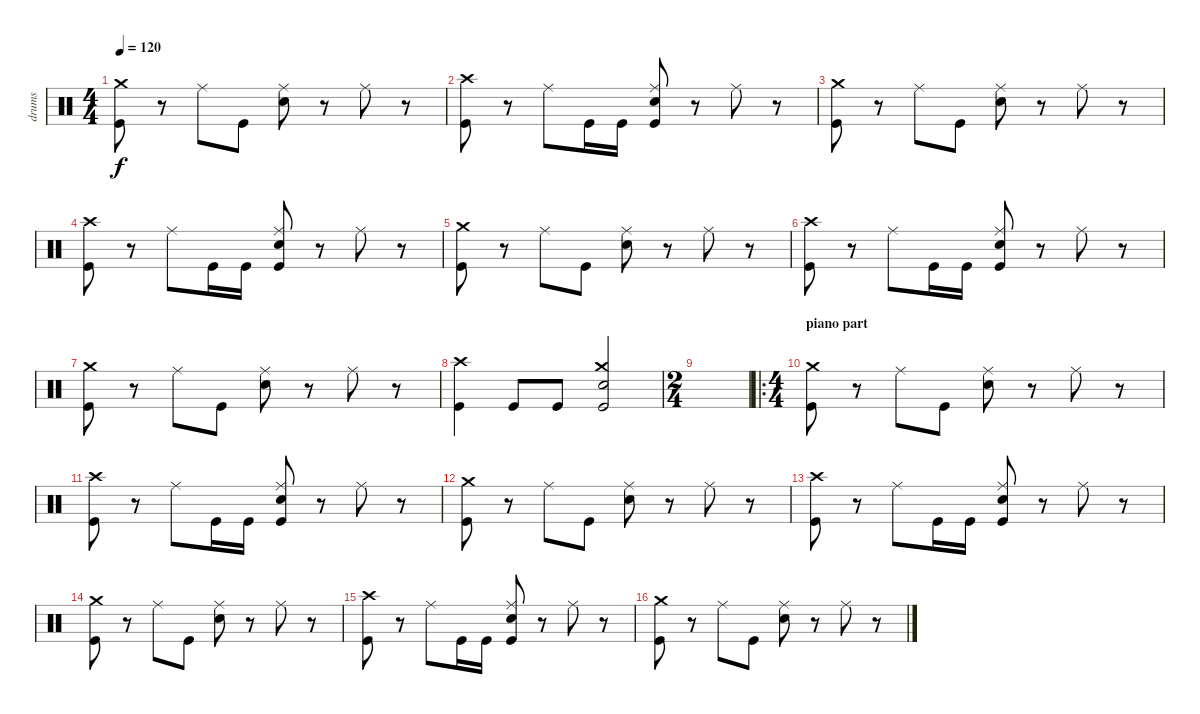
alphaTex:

\track ("drums" "drums") {instrument percussion}
\staff {score}
\articulation defaults
\ts (4 4)
\tempo 120
\clef neutral
\ks c
("Kick (hit)" "Crash medium (hit)").8{dy f} r.8 "Ride (middle)".8 "Kick (hit)".8 ("Snare (hit) 2" "Ride (middle)").8 r.8 "Ride (middle)".8 r.8 |
("Kick (hit)" "Crash high (hit)").8 r.8 "Ride (middle)".8 "Kick (hit)".16 "Kick (hit)".16 ("Kick (hit)" "Snare (hit) 2" "Ride (middle)").8 r.8 "Ride (middle)".8 r.8 |
("Kick (hit)" "Crash medium (hit)").8 r.8 "Ride (middle)".8 "Kick (hit)".8 ("Snare (hit) 2" "Ride (middle)").8 r.8 "Ride (middle)".8 r.8 |
("Kick (hit)" "Crash high (hit)").8 r.8 "Ride (middle)".8 "Kick (hit)".16 "Kick (hit)".16 ("Kick (hit)" "Snare (hit) 2" "Ride (middle)").8 r.8 "Ride (middle)".8 r.8 |
("Kick (hit)" "Crash medium (hit)").8 r.8 "Ride (middle)".8 "Kick (hit)".8 ("Snare (hit) 2" "Ride (middle)").8 r.8 "Ride (middle)".8 r.8 |
("Kick (hit)" "Crash high (hit)").8 r.8 "Ride (middle)".8 "Kick (hit)".16 "Kick (hit)".16 ("Kick (hit)" "Snare (hit) 2" "Ride (middle)").8 r.8 "Ride (middle)".8 r.8 |
("Kick (hit)" "Crash medium (hit)").8 r.8 "Ride (middle)".8 "Kick (hit)".8 ("Snare (hit) 2" "Ride (middle)").8 r.8 "Ride (middle)".8 r.8 |
("Kick (hit)" "Crash high (hit)").4 "Kick (hit)".8 "Kick (hit)".8 ("Kick (hit)" "Snare (hit) 2" "Crash medium (hit)").2 |
\ts (2 4)
|
\ro
\ts (4 4)
\section ("" "piano part")
("Kick (hit)" "Crash medium (hit)").8 r.8 "Ride (middle)".8 "Kick (hit)".8 ("Snare (hit) 2" "Ride (middle)").8 r.8 "Ride (middle)".8 r.8 |
("Kick (hit)" "Crash high (hit)").8 r.8 "Ride (middle)".8 "Kick (hit)".16 "Kick (hit)".16 ("Kick (hit)" "Snare (hit) 2" "Ride (middle)").8 r.8 "Ride (middle)".8 r.8 |
("Kick (hit)" "Crash medium (hit)").8 r.8 "Ride (middle)".8 "Kick (hit)".8 ("Snare (hit) 2" "Ride (middle)").8 r.8 "Ride (middle)".8 r.8 |
("Kick (hit)" "Crash high (hit)").8 r.8 "Ride (middle)".8 "Kick (hit)".16 "Kick (hit)".16 ("Kick (hit)" "Snare (hit) 2" "Ride (middle)").8 r.8 "Ride (middle)".8 r.8 |
("Kick (hit)" "Crash medium (hit)").8 r.8 "Ride (middle)".8 "Kick (hit)".8 ("Snare (hit) 2" "Ride (middle)").8 r.8 "Ride (middle)".8 r.8 |
("Kick (hit)" "Crash high (hit)").8 r.8 "Ride (middle)".8 "Kick (hit)".16 "Kick (hit)".16 ("Kick (hit)" "Snare (hit) 2" "Ride (middle)").8 r.8 "Ride (middle)".8 r.8 |
("Kick (hit)" "Crash medium (hit)").8 r.8 "Ride (middle)".8 "Kick (hit)".8 ("Snare (hit) 2" "Ride (middle)").8 r.8 "Ride (middle)".8 r.8
